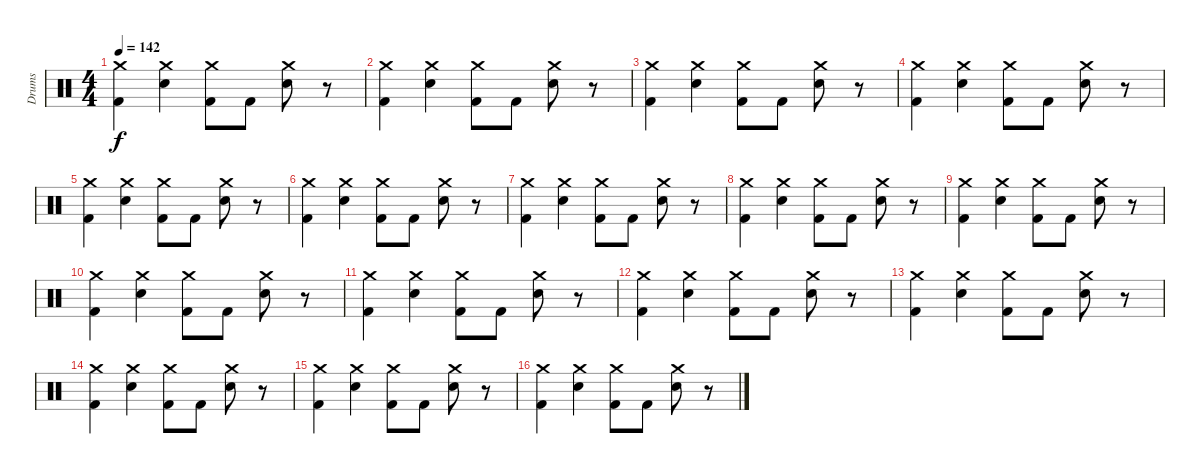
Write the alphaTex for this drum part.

\track ("Drums" "Drums") {instrument percussion}
\staff {score}
\articulation defaults
\ts (4 4)
\tempo 142
\clef neutral
\ks c
("Crash medium (hit)" "Kick (hit) 2").4{dy f} ("Crash medium (hit)" "Snare (hit) 2").4 ("Crash medium (hit)" "Kick (hit) 2").8 "Kick (hit) 2".8 ("Crash medium (hit)" "Snare (hit) 2").8 r.8 |
("Crash medium (hit)" "Kick (hit) 2").4 ("Crash medium (hit)" "Snare (hit) 2").4 ("Crash medium (hit)" "Kick (hit) 2").8 "Kick (hit) 2".8 ("Crash medium (hit)" "Snare (hit) 2").8 r.8 |
("Crash medium (hit)" "Kick (hit) 2").4 ("Crash medium (hit)" "Snare (hit) 2").4 ("Crash medium (hit)" "Kick (hit) 2").8 "Kick (hit) 2".8 ("Crash medium (hit)" "Snare (hit) 2").8 r.8 |
("Crash medium (hit)" "Kick (hit) 2").4 ("Crash medium (hit)" "Snare (hit) 2").4 ("Crash medium (hit)" "Kick (hit) 2").8 "Kick (hit) 2".8 ("Crash medium (hit)" "Snare (hit) 2").8 r.8 |
("Crash medium (hit)" "Kick (hit) 2").4 ("Crash medium (hit)" "Snare (hit) 2").4 ("Crash medium (hit)" "Kick (hit) 2").8 "Kick (hit) 2".8 ("Crash medium (hit)" "Snare (hit) 2").8 r.8 |
("Crash medium (hit)" "Kick (hit) 2").4 ("Crash medium (hit)" "Snare (hit) 2").4 ("Crash medium (hit)" "Kick (hit) 2").8 "Kick (hit) 2".8 ("Crash medium (hit)" "Snare (hit) 2").8 r.8 |
("Crash medium (hit)" "Kick (hit) 2").4 ("Crash medium (hit)" "Snare (hit) 2").4 ("Crash medium (hit)" "Kick (hit) 2").8 "Kick (hit) 2".8 ("Crash medium (hit)" "Snare (hit) 2").8 r.8 |
("Crash medium (hit)" "Kick (hit) 2").4 ("Crash medium (hit)" "Snare (hit) 2").4 ("Crash medium (hit)" "Kick (hit) 2").8 "Kick (hit) 2".8 ("Crash medium (hit)" "Snare (hit) 2").8 r.8 |
("Crash medium (hit)" "Kick (hit) 2").4 ("Crash medium (hit)" "Snare (hit) 2").4 ("Crash medium (hit)" "Kick (hit) 2").8 "Kick (hit) 2".8 ("Crash medium (hit)" "Snare (hit) 2").8 r.8 |
("Crash medium (hit)" "Kick (hit) 2").4 ("Crash medium (hit)" "Snare (hit) 2").4 ("Crash medium (hit)" "Kick (hit) 2").8 "Kick (hit) 2".8 ("Crash medium (hit)" "Snare (hit) 2").8 r.8 |
("Crash medium (hit)" "Kick (hit) 2").4 ("Crash medium (hit)" "Snare (hit) 2").4 ("Crash medium (hit)" "Kick (hit) 2").8 "Kick (hit) 2".8 ("Crash medium (hit)" "Snare (hit) 2").8 r.8 |
("Crash medium (hit)" "Kick (hit) 2").4 ("Crash medium (hit)" "Snare (hit) 2").4 ("Crash medium (hit)" "Kick (hit) 2").8 "Kick (hit) 2".8 ("Crash medium (hit)" "Snare (hit) 2").8 r.8 |
("Crash medium (hit)" "Kick (hit) 2").4 ("Crash medium (hit)" "Snare (hit) 2").4 ("Crash medium (hit)" "Kick (hit) 2").8 "Kick (hit) 2".8 ("Crash medium (hit)" "Snare (hit) 2").8 r.8 |
("Crash medium (hit)" "Kick (hit) 2").4 ("Crash medium (hit)" "Snare (hit) 2").4 ("Crash medium (hit)" "Kick (hit) 2").8 "Kick (hit) 2".8 ("Crash medium (hit)" "Snare (hit) 2").8 r.8 |
("Crash medium (hit)" "Kick (hit) 2").4 ("Crash medium (hit)" "Snare (hit) 2").4 ("Crash medium (hit)" "Kick (hit) 2").8 "Kick (hit) 2".8 ("Crash medium (hit)" "Snare (hit) 2").8 r.8 |
("Crash medium (hit)" "Kick (hit) 2").4 ("Crash medium (hit)" "Snare (hit) 2").4 ("Crash medium (hit)" "Kick (hit) 2").8 "Kick (hit) 2".8 ("Crash medium (hit)" "Snare (hit) 2").8 r.8
